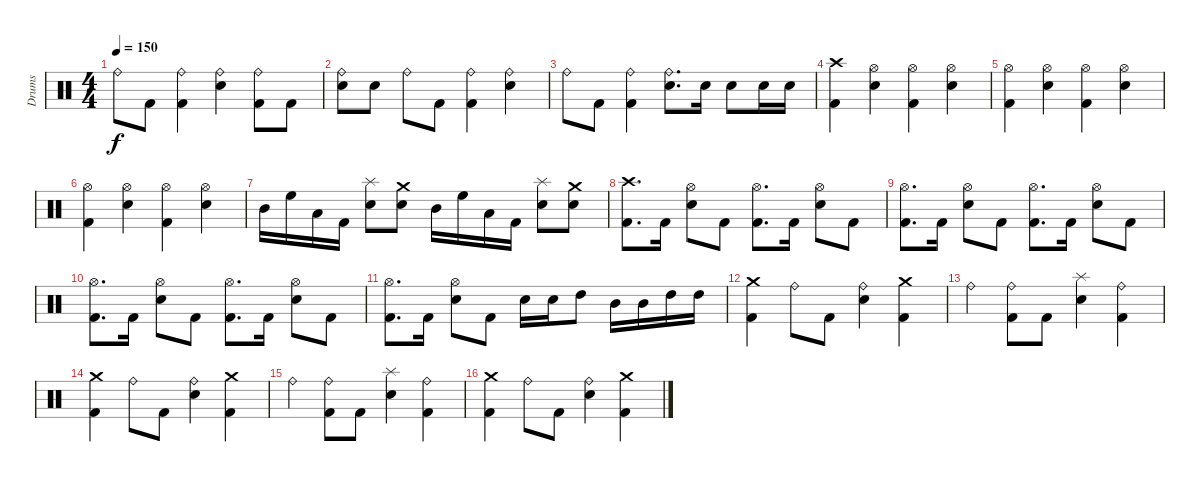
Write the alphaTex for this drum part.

\track ("Drums" "Drums") {instrument percussion}
\staff {score}
\articulation defaults
\ts (4 4)
\tempo 150
\clef neutral
\ks c "Ride (bell)".8{dy f} "Kick (hit) 2".8
("Ride (bell)" "Kick (hit) 2").4 ("Ride (bell)" "Electric Snare (hit)").4 ("Ride (bell)" "Kick (hit) 2").8 "Kick (hit) 2".8 |
("Ride (bell)" "Electric Snare (hit)").8 "Electric Snare (hit)".8 "Ride (bell)".8 "Kick (hit) 2".8 ("Ride (bell)" "Kick (hit) 2").4 ("Ride (bell)" "Electric Snare (hit)").4 |
"Ride (bell)".8 "Kick (hit) 2".8 ("Ride (bell)" "Kick (hit) 2").4 ("Ride (bell)" "Electric Snare (hit)").8{d} "Electric Snare (hit)".16 "Electric Snare (hit)".8 "Electric Snare (hit)".16 "Electric Snare (hit)".16 |
("Crash high (hit)" "Kick (hit) 2").4 ("Hi-Hat (open)" "Electric Snare (hit)").4 ("Hi-Hat (open)" "Kick (hit) 2").4 ("Hi-Hat (open)" "Electric Snare (hit)").4 |
("Hi-Hat (open)" "Kick (hit) 2").4 ("Hi-Hat (open)" "Electric Snare (hit)").4 ("Hi-Hat (open)" "Kick (hit) 2").4 ("Hi-Hat (open)" "Electric Snare (hit)").4 |
("Hi-Hat (open)" "Kick (hit) 2").4 ("Hi-Hat (open)" "Electric Snare (hit)").4 ("Hi-Hat (open)" "Kick (hit) 2").4 ("Hi-Hat (open)" "Electric Snare (hit)").4 |
"Mid Tom (hit)".16 "High Floor Tom (hit)".16 "Low Floor Tom (hit)".16 "Kick (hit) 2".16 ("Splash (hit)" "Electric Snare (hit)").8 ("Crash medium (hit)" "Electric Snare (hit)").8 "Mid Tom (hit)".16 "High Floor Tom (hit)".16 "Low Floor Tom (hit)".16 "Kick (hit) 2".16 ("Splash (hit)" "Electric Snare (hit)").8 ("Crash medium (hit)" "Electric Snare (hit)").8 |
("Crash high (hit)" "Kick (hit) 2").8{d} "Kick (hit) 2".16 ("Hi-Hat (open)" "Electric Snare (hit)").8 "Kick (hit) 2".8 ("Hi-Hat (open)" "Kick (hit) 2").8{d} "Kick (hit) 2".16 ("Hi-Hat (open)" "Electric Snare (hit)").8 "Kick (hit) 2".8 |
("Hi-Hat (open)" "Kick (hit) 2").8{d} "Kick (hit) 2".16 ("Hi-Hat (open)" "Electric Snare (hit)").8 "Kick (hit) 2".8 ("Hi-Hat (open)" "Kick (hit) 2").8{d} "Kick (hit) 2".16 ("Hi-Hat (open)" "Electric Snare (hit)").8 "Kick (hit) 2".8 |
("Hi-Hat (open)" "Kick (hit) 2").8{d} "Kick (hit) 2".16 ("Hi-Hat (open)" "Electric Snare (hit)").8 "Kick (hit) 2".8 ("Hi-Hat (open)" "Kick (hit) 2").8{d} "Kick (hit) 2".16 ("Hi-Hat (open)" "Electric Snare (hit)").8 "Kick (hit) 2".8 |
("Hi-Hat (open)" "Kick (hit) 2").8{d} "Kick (hit) 2".16 ("Hi-Hat (open)" "Electric Snare (hit)").8 "Kick (hit) 2".8 "Electric Snare (hit)".16 "Electric Snare (hit)".16 "High Tom (hit)".8 "Mid Tom (hit)".16 "Mid Tom (hit)".16 "High Tom (hit)".16 "High Tom (hit)".16 |
("Crash medium (hit)" "Kick (hit) 2").4 "Ride (bell)".8 "Kick (hit) 2".8 ("Ride (bell)" "Electric Snare (hit)").4 ("Crash medium (hit)" "Kick (hit) 2").4 |
"Ride (bell)".4 ("Ride (bell)" "Kick (hit) 2").8 "Kick (hit) 2".8 ("Splash (hit)" "Electric Snare (hit)").4 ("Ride (bell)" "Kick (hit) 2").4 |
("Crash medium (hit)" "Kick (hit) 2").4 "Ride (bell)".8 "Kick (hit) 2".8 ("Ride (bell)" "Electric Snare (hit)").4 ("Crash medium (hit)" "Kick (hit) 2").4 |
"Ride (bell)".4 ("Ride (bell)" "Kick (hit) 2").8 "Kick (hit) 2".8 ("Splash (hit)" "Electric Snare (hit)").4 ("Ride (bell)" "Kick (hit) 2").4 |
("Crash medium (hit)" "Kick (hit) 2").4 "Ride (bell)".8 "Kick (hit) 2".8 ("Ride (bell)" "Electric Snare (hit)").4 ("Crash medium (hit)" "Kick (hit) 2").4
